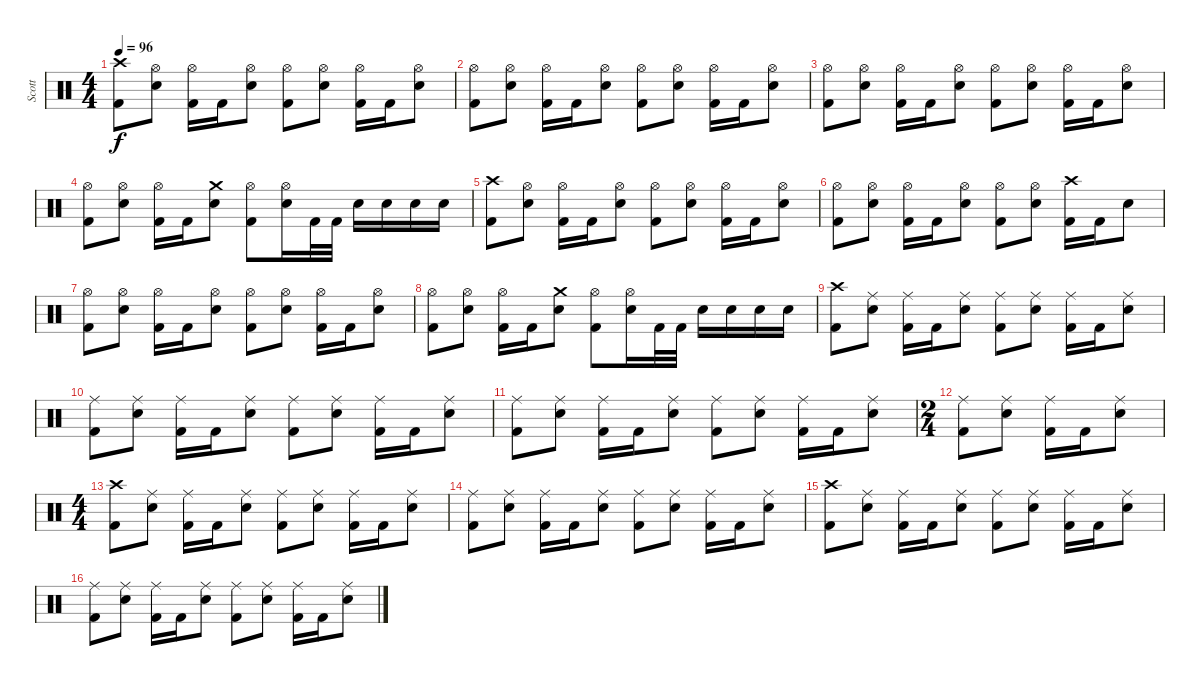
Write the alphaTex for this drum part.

\track ("Scott" "Scott") {instrument percussion}
\staff {score}
\articulation defaults
\ts (4 4)
\tempo 96
\clef neutral
\ks c
("Kick (hit) 2" "Crash high (hit)").8{dy f} ("Hi-Hat (open)" "Snare (hit) 2").8 ("Hi-Hat (open)" "Kick (hit) 2").16 "Kick (hit) 2".16 ("Snare (hit) 2" "Hi-Hat (open)").8 ("Kick (hit) 2" "Hi-Hat (open)").8 ("Hi-Hat (open)" "Snare (hit) 2").8 ("Hi-Hat (open)" "Kick (hit) 2").16 "Kick (hit) 2".16 ("Snare (hit) 2" "Hi-Hat (open)").8 |
("Kick (hit) 2" "Hi-Hat (open)").8 ("Hi-Hat (open)" "Snare (hit) 2").8 ("Hi-Hat (open)" "Kick (hit) 2").16 "Kick (hit) 2".16 ("Snare (hit) 2" "Hi-Hat (open)").8 ("Kick (hit) 2" "Hi-Hat (open)").8 ("Hi-Hat (open)" "Snare (hit) 2").8 ("Hi-Hat (open)" "Kick (hit) 2").16 "Kick (hit) 2".16 ("Snare (hit) 2" "Hi-Hat (open)").8 |
("Kick (hit) 2" "Hi-Hat (open)").8 ("Hi-Hat (open)" "Snare (hit) 2").8 ("Hi-Hat (open)" "Kick (hit) 2").16 "Kick (hit) 2".16 ("Snare (hit) 2" "Hi-Hat (open)").8 ("Kick (hit) 2" "Hi-Hat (open)").8 ("Hi-Hat (open)" "Snare (hit) 2").8 ("Hi-Hat (open)" "Kick (hit) 2").16 "Kick (hit) 2".16 ("Snare (hit) 2" "Hi-Hat (open)").8 |
("Kick (hit) 2" "Hi-Hat (open)").8 ("Hi-Hat (open)" "Snare (hit) 2").8 ("Hi-Hat (open)" "Kick (hit) 2").16 "Kick (hit) 2".16 ("Snare (hit) 2" "Crash medium (hit)").8 ("Kick (hit) 2" "Hi-Hat (open)").8 ("Hi-Hat (open)" "Snare (hit) 2").16 "Kick (hit) 2".32 "Kick (hit) 2".32 "Snare (hit) 2".16 "Snare (hit) 2".16 "Snare (hit) 2".16 "Snare (hit) 2".16 |
("Kick (hit) 2" "Crash high (hit)").8 ("Hi-Hat (open)" "Snare (hit) 2").8 ("Hi-Hat (open)" "Kick (hit) 2").16 "Kick (hit) 2".16 ("Snare (hit) 2" "Hi-Hat (open)").8 ("Kick (hit) 2" "Hi-Hat (open)").8 ("Hi-Hat (open)" "Snare (hit) 2").8 ("Hi-Hat (open)" "Kick (hit) 2").16 "Kick (hit) 2".16 ("Snare (hit) 2" "Hi-Hat (open)").8 |
("Kick (hit) 2" "Hi-Hat (open)").8 ("Hi-Hat (open)" "Snare (hit) 2").8 ("Hi-Hat (open)" "Kick (hit) 2").16 "Kick (hit) 2".16 ("Snare (hit) 2" "Hi-Hat (open)").8 ("Kick (hit) 2" "Hi-Hat (open)").8 ("Hi-Hat (open)" "Snare (hit) 2").8 ("Kick (hit) 2" "Crash high (hit)").16 "Kick (hit) 2".16 "Snare (hit) 2".8 |
("Kick (hit) 2" "Hi-Hat (open)").8 ("Hi-Hat (open)" "Snare (hit) 2").8 ("Hi-Hat (open)" "Kick (hit) 2").16 "Kick (hit) 2".16 ("Snare (hit) 2" "Hi-Hat (open)").8 ("Kick (hit) 2" "Hi-Hat (open)").8 ("Hi-Hat (open)" "Snare (hit) 2").8 ("Hi-Hat (open)" "Kick (hit) 2").16 "Kick (hit) 2".16 ("Snare (hit) 2" "Hi-Hat (open)").8 |
("Kick (hit) 2" "Hi-Hat (open)").8 ("Hi-Hat (open)" "Snare (hit) 2").8 ("Hi-Hat (open)" "Kick (hit) 2").16 "Kick (hit) 2".16 ("Snare (hit) 2" "Crash medium (hit)").8 ("Kick (hit) 2" "Hi-Hat (open)").8 ("Hi-Hat (open)" "Snare (hit) 2").16 "Kick (hit) 2".32 "Kick (hit) 2".32 "Snare (hit) 2".16 "Snare (hit) 2".16 "Snare (hit) 2".16 "Snare (hit) 2".16 |
("Kick (hit) 2" "Crash high (hit)").8 ("Ride (middle)" "Snare (hit) 2").8 ("Ride (middle)" "Kick (hit) 2").16 "Kick (hit) 2".16 ("Snare (hit) 2" "Ride (middle)").8 ("Kick (hit) 2" "Ride (middle)").8 ("Ride (middle)" "Snare (hit) 2").8 ("Ride (middle)" "Kick (hit) 2").16 "Kick (hit) 2".16 ("Snare (hit) 2" "Ride (middle)").8 |
("Kick (hit) 2" "Ride (middle)").8 ("Ride (middle)" "Snare (hit) 2").8 ("Ride (middle)" "Kick (hit) 2").16 "Kick (hit) 2".16 ("Snare (hit) 2" "Ride (middle)").8 ("Kick (hit) 2" "Ride (middle)").8 ("Ride (middle)" "Snare (hit) 2").8 ("Ride (middle)" "Kick (hit) 2").16 "Kick (hit) 2".16 ("Snare (hit) 2" "Ride (middle)").8 |
("Kick (hit) 2" "Ride (middle)").8 ("Ride (middle)" "Snare (hit) 2").8 ("Ride (middle)" "Kick (hit) 2").16 "Kick (hit) 2".16 ("Snare (hit) 2" "Ride (middle)").8 ("Kick (hit) 2" "Ride (middle)").8 ("Ride (middle)" "Snare (hit) 2").8 ("Ride (middle)" "Kick (hit) 2").16 "Kick (hit) 2".16 ("Snare (hit) 2" "Ride (middle)").8 |
\ts (2 4)
("Kick (hit) 2" "Ride (middle)").8 ("Ride (middle)" "Snare (hit) 2").8 ("Ride (middle)" "Kick (hit) 2").16 "Kick (hit) 2".16 ("Snare (hit) 2" "Ride (middle)").8 |
\ts (4 4)
("Kick (hit) 2" "Crash high (hit)").8 ("Ride (middle)" "Snare (hit) 2").8 ("Ride (middle)" "Kick (hit) 2").16 "Kick (hit) 2".16 ("Snare (hit) 2" "Ride (middle)").8 ("Kick (hit) 2" "Ride (middle)").8 ("Ride (middle)" "Snare (hit) 2").8 ("Ride (middle)" "Kick (hit) 2").16 "Kick (hit) 2".16 ("Snare (hit) 2" "Ride (middle)").8 |
("Kick (hit) 2" "Ride (middle)").8 ("Ride (middle)" "Snare (hit) 2").8 ("Ride (middle)" "Kick (hit) 2").16 "Kick (hit) 2".16 ("Snare (hit) 2" "Ride (middle)").8 ("Kick (hit) 2" "Ride (middle)").8 ("Ride (middle)" "Snare (hit) 2").8 ("Ride (middle)" "Kick (hit) 2").16 "Kick (hit) 2".16 ("Snare (hit) 2" "Ride (middle)").8 |
("Kick (hit) 2" "Crash high (hit)").8 ("Ride (middle)" "Snare (hit) 2").8 ("Ride (middle)" "Kick (hit) 2").16 "Kick (hit) 2".16 ("Snare (hit) 2" "Ride (middle)").8 ("Kick (hit) 2" "Ride (middle)").8 ("Ride (middle)" "Snare (hit) 2").8 ("Ride (middle)" "Kick (hit) 2").16 "Kick (hit) 2".16 ("Snare (hit) 2" "Ride (middle)").8 |
("Kick (hit) 2" "Ride (middle)").8 ("Ride (middle)" "Snare (hit) 2").8 ("Ride (middle)" "Kick (hit) 2").16 "Kick (hit) 2".16 ("Snare (hit) 2" "Ride (middle)").8 ("Kick (hit) 2" "Ride (middle)").8 ("Ride (middle)" "Snare (hit) 2").8 ("Ride (middle)" "Kick (hit) 2").16 "Kick (hit) 2".16 ("Snare (hit) 2" "Ride (middle)").8
